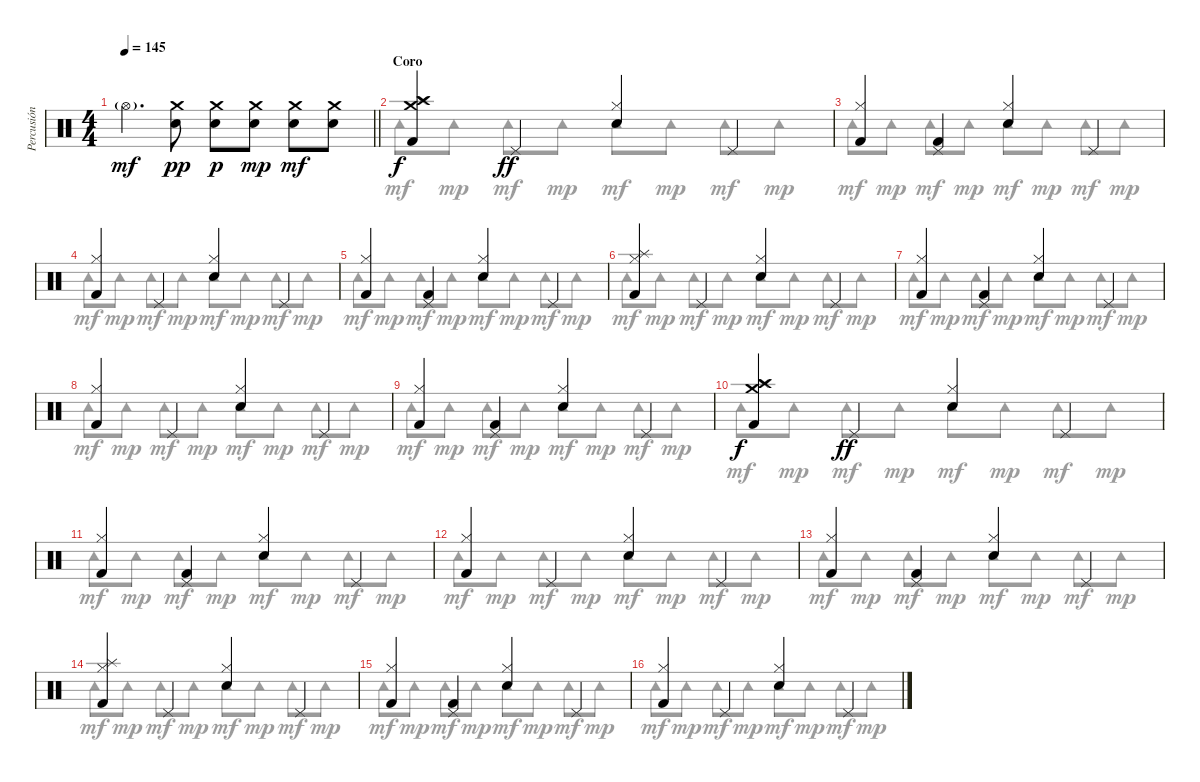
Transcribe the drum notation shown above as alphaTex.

\track ("Percusión" "Percusión") {instrument percussion}
\staff {score}
\articulation defaults
\voice
\ts (4 4)
\tempo 145
\clef neutral
\barLineRight lightlight
\ks c "Hi-Hat (open)"{g}.4{d dy mf}
("Crash medium (hit)" "Electric Snare (hit)").8{dy pp} ("Crash medium (hit)" "Electric Snare (hit)").8{dy p} ("Crash medium (hit)" "Electric Snare (hit)").8{dy mp} ("Crash medium (hit)" "Electric Snare (hit)").8{dy mf} ("Crash medium (hit)" "Electric Snare (hit)").8 |
\section ("" "Coro")
("Crash medium (hit)" "Crash high (hit)" "Splash (hit)" "Kick (hit) 2").4{dy f} "Pedal Hi-Hat (hit)".4{dy ff} ("Hi-Hat (closed)" "Electric Snare (hit)").4 "Pedal Hi-Hat (hit)".4 |
("Hi-Hat (closed)" "Kick (hit) 2").4 ("Pedal Hi-Hat (hit)" "Kick (hit) 2").4 ("Hi-Hat (closed)" "Electric Snare (hit)").4 "Pedal Hi-Hat (hit)".4 |
("Hi-Hat (closed)" "Kick (hit) 2").4 "Pedal Hi-Hat (hit)".4 ("Hi-Hat (closed)" "Electric Snare (hit)").4 "Pedal Hi-Hat (hit)".4 |
("Hi-Hat (closed)" "Kick (hit) 2").4 ("Pedal Hi-Hat (hit)" "Kick (hit) 2").4 ("Hi-Hat (closed)" "Electric Snare (hit)").4 "Pedal Hi-Hat (hit)".4 |
("Hi-Hat (closed)" "Splash (hit)" "Kick (hit) 2").4 "Pedal Hi-Hat (hit)".4 ("Hi-Hat (closed)" "Electric Snare (hit)").4 "Pedal Hi-Hat (hit)".4 |
("Hi-Hat (closed)" "Kick (hit) 2").4 ("Pedal Hi-Hat (hit)" "Kick (hit) 2").4 ("Hi-Hat (closed)" "Electric Snare (hit)").4 "Pedal Hi-Hat (hit)".4 |
("Hi-Hat (closed)" "Kick (hit) 2").4 "Pedal Hi-Hat (hit)".4 ("Hi-Hat (closed)" "Electric Snare (hit)").4 "Pedal Hi-Hat (hit)".4 |
("Hi-Hat (closed)" "Kick (hit) 2").4 ("Pedal Hi-Hat (hit)" "Kick (hit) 2").4 ("Hi-Hat (closed)" "Electric Snare (hit)").4 "Pedal Hi-Hat (hit)".4 |
("Crash medium (hit)" "Crash high (hit)" "Splash (hit)" "Kick (hit) 2").4{dy f} "Pedal Hi-Hat (hit)".4{dy ff} ("Hi-Hat (closed)" "Electric Snare (hit)").4 "Pedal Hi-Hat (hit)".4 |
("Hi-Hat (closed)" "Kick (hit) 2").4 ("Pedal Hi-Hat (hit)" "Kick (hit) 2").4 ("Hi-Hat (closed)" "Electric Snare (hit)").4 "Pedal Hi-Hat (hit)".4 |
("Hi-Hat (closed)" "Kick (hit) 2").4 "Pedal Hi-Hat (hit)".4 ("Hi-Hat (closed)" "Electric Snare (hit)").4 "Pedal Hi-Hat (hit)".4 |
("Hi-Hat (closed)" "Kick (hit) 2").4 ("Pedal Hi-Hat (hit)" "Kick (hit) 2").4 ("Hi-Hat (closed)" "Electric Snare (hit)").4 "Pedal Hi-Hat (hit)".4 |
("Splash (hit)" "Hi-Hat (closed)" "Kick (hit) 2").4 "Pedal Hi-Hat (hit)".4 ("Hi-Hat (closed)" "Electric Snare (hit)").4 "Pedal Hi-Hat (hit)".4 |
("Hi-Hat (closed)" "Kick (hit) 2").4 ("Pedal Hi-Hat (hit)" "Kick (hit) 2").4 ("Hi-Hat (closed)" "Electric Snare (hit)").4 "Pedal Hi-Hat (hit)".4 |
("Hi-Hat (closed)" "Kick (hit) 2").4 "Pedal Hi-Hat (hit)".4 ("Hi-Hat (closed)" "Electric Snare (hit)").4 "Pedal Hi-Hat (hit)".4
\voice
\clef neutral
\ottava regular
\simile none
\barLineRight lightlight
\ks c
|
"Tambourine (hit)".8{dy mf} "Tambourine (hit)".8{dy mp} "Tambourine (hit)".8{dy mf} "Tambourine (hit)".8{dy mp} "Tambourine (hit)".8{dy mf} "Tambourine (hit)".8{dy mp} "Tambourine (hit)".8{dy mf} "Tambourine (hit)".8{dy mp} |
"Tambourine (hit)".8{dy mf} "Tambourine (hit)".8{dy mp} "Tambourine (hit)".8{dy mf} "Tambourine (hit)".8{dy mp} "Tambourine (hit)".8{dy mf} "Tambourine (hit)".8{dy mp} "Tambourine (hit)".8{dy mf} "Tambourine (hit)".8{dy mp} |
"Tambourine (hit)".8{dy mf} "Tambourine (hit)".8{dy mp} "Tambourine (hit)".8{dy mf} "Tambourine (hit)".8{dy mp} "Tambourine (hit)".8{dy mf} "Tambourine (hit)".8{dy mp} "Tambourine (hit)".8{dy mf} "Tambourine (hit)".8{dy mp} |
"Tambourine (hit)".8{dy mf} "Tambourine (hit)".8{dy mp} "Tambourine (hit)".8{dy mf} "Tambourine (hit)".8{dy mp} "Tambourine (hit)".8{dy mf} "Tambourine (hit)".8{dy mp} "Tambourine (hit)".8{dy mf} "Tambourine (hit)".8{dy mp} |
"Tambourine (hit)".8{dy mf} "Tambourine (hit)".8{dy mp} "Tambourine (hit)".8{dy mf} "Tambourine (hit)".8{dy mp} "Tambourine (hit)".8{dy mf} "Tambourine (hit)".8{dy mp} "Tambourine (hit)".8{dy mf} "Tambourine (hit)".8{dy mp} |
"Tambourine (hit)".8{dy mf} "Tambourine (hit)".8{dy mp} "Tambourine (hit)".8{dy mf} "Tambourine (hit)".8{dy mp} "Tambourine (hit)".8{dy mf} "Tambourine (hit)".8{dy mp} "Tambourine (hit)".8{dy mf} "Tambourine (hit)".8{dy mp} |
"Tambourine (hit)".8{dy mf} "Tambourine (hit)".8{dy mp} "Tambourine (hit)".8{dy mf} "Tambourine (hit)".8{dy mp} "Tambourine (hit)".8{dy mf} "Tambourine (hit)".8{dy mp} "Tambourine (hit)".8{dy mf} "Tambourine (hit)".8{dy mp} |
"Tambourine (hit)".8{dy mf} "Tambourine (hit)".8{dy mp} "Tambourine (hit)".8{dy mf} "Tambourine (hit)".8{dy mp} "Tambourine (hit)".8{dy mf} "Tambourine (hit)".8{dy mp} "Tambourine (hit)".8{dy mf} "Tambourine (hit)".8{dy mp} |
"Tambourine (hit)".8{dy mf} "Tambourine (hit)".8{dy mp} "Tambourine (hit)".8{dy mf} "Tambourine (hit)".8{dy mp} "Tambourine (hit)".8{dy mf} "Tambourine (hit)".8{dy mp} "Tambourine (hit)".8{dy mf} "Tambourine (hit)".8{dy mp} |
"Tambourine (hit)".8{dy mf} "Tambourine (hit)".8{dy mp} "Tambourine (hit)".8{dy mf} "Tambourine (hit)".8{dy mp} "Tambourine (hit)".8{dy mf} "Tambourine (hit)".8{dy mp} "Tambourine (hit)".8{dy mf} "Tambourine (hit)".8{dy mp} |
"Tambourine (hit)".8{dy mf} "Tambourine (hit)".8{dy mp} "Tambourine (hit)".8{dy mf} "Tambourine (hit)".8{dy mp} "Tambourine (hit)".8{dy mf} "Tambourine (hit)".8{dy mp} "Tambourine (hit)".8{dy mf} "Tambourine (hit)".8{dy mp} |
"Tambourine (hit)".8{dy mf} "Tambourine (hit)".8{dy mp} "Tambourine (hit)".8{dy mf} "Tambourine (hit)".8{dy mp} "Tambourine (hit)".8{dy mf} "Tambourine (hit)".8{dy mp} "Tambourine (hit)".8{dy mf} "Tambourine (hit)".8{dy mp} |
"Tambourine (hit)".8{dy mf} "Tambourine (hit)".8{dy mp} "Tambourine (hit)".8{dy mf} "Tambourine (hit)".8{dy mp} "Tambourine (hit)".8{dy mf} "Tambourine (hit)".8{dy mp} "Tambourine (hit)".8{dy mf} "Tambourine (hit)".8{dy mp} |
"Tambourine (hit)".8{dy mf} "Tambourine (hit)".8{dy mp} "Tambourine (hit)".8{dy mf} "Tambourine (hit)".8{dy mp} "Tambourine (hit)".8{dy mf} "Tambourine (hit)".8{dy mp} "Tambourine (hit)".8{dy mf} "Tambourine (hit)".8{dy mp} |
"Tambourine (hit)".8{dy mf} "Tambourine (hit)".8{dy mp} "Tambourine (hit)".8{dy mf} "Tambourine (hit)".8{dy mp} "Tambourine (hit)".8{dy mf} "Tambourine (hit)".8{dy mp} "Tambourine (hit)".8{dy mf} "Tambourine (hit)".8{dy mp}
